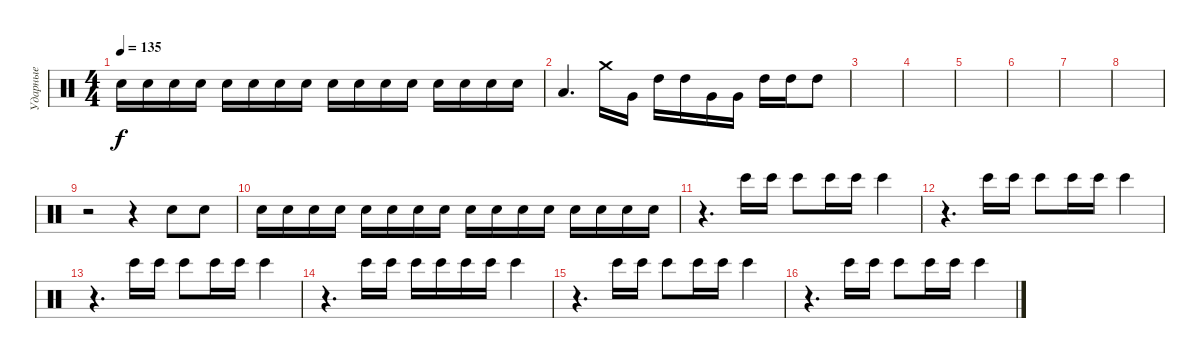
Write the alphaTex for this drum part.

\track ("Ударные" "Ударные") {instrument percussion}
\staff {score}
\articulation defaults
\ts (4 4)
\tempo 135
\clef neutral
\ks c "Electric Snare (hit)".16{dy f} "Electric Snare (hit)".16 "Electric Snare (hit)".16 "Electric Snare (hit)".16 "Electric Snare (hit)".16 "Electric Snare (hit)".16 "Electric Snare (hit)".16 "Electric Snare (hit)".16 "Electric Snare (hit)".16 "Electric Snare (hit)".16 "Electric Snare (hit)".16 "Electric Snare (hit)".16 "Electric Snare (hit)".16 "Electric Snare (hit)".16 "Electric Snare (hit)".16 "Electric Snare (hit)".16
|
"Low Floor Tom (hit)".4{d} "Crash medium (hit)".16 "Very Low Tom (hit)".16 "High Tom (hit)".16 "High Tom (hit)".16 "Very Low Tom (hit)".16 "Very Low Tom (hit)".16 "High Tom (hit)".16 "High Tom (hit)".16 "High Tom (hit)".8 |
|
|
|
|
|
|
r.2 r.4 "Electric Snare (hit)".8 "Electric Snare (hit)".8 |
"Electric Snare (hit)".16 "Electric Snare (hit)".16 "Electric Snare (hit)".16 "Electric Snare (hit)".16 "Electric Snare (hit)".16 "Electric Snare (hit)".16 "Electric Snare (hit)".16 "Electric Snare (hit)".16 "Electric Snare (hit)".16 "Electric Snare (hit)".16 "Electric Snare (hit)".16 "Electric Snare (hit)".16 "Electric Snare (hit)".16 "Electric Snare (hit)".16 "Electric Snare (hit)".16 "Electric Snare (hit)".16 |
r.4{d} "Bongo High (hit)".16 "Bongo High (hit)".16 "Bongo High (hit)".8 "Bongo High (hit)".16 "Bongo High (hit)".16 "Bongo High (hit)".4 |
r.4{d} "Bongo High (hit)".16 "Bongo High (hit)".16 "Bongo High (hit)".8 "Bongo High (hit)".16 "Bongo High (hit)".16 "Bongo High (hit)".4 |
r.4{d} "Bongo High (hit)".16 "Bongo High (hit)".16 "Bongo High (hit)".8 "Bongo High (hit)".16 "Bongo High (hit)".16 "Bongo High (hit)".4 |
r.4{d} "Bongo High (hit)".16 "Bongo High (hit)".16 "Bongo High (hit)".16 "Bongo High (hit)".16 "Bongo High (hit)".16 "Bongo High (hit)".16 "Bongo High (hit)".4 |
r.4{d} "Bongo High (hit)".16 "Bongo High (hit)".16 "Bongo High (hit)".8 "Bongo High (hit)".16 "Bongo High (hit)".16 "Bongo High (hit)".4 |
r.4{d} "Bongo High (hit)".16 "Bongo High (hit)".16 "Bongo High (hit)".8 "Bongo High (hit)".16 "Bongo High (hit)".16 "Bongo High (hit)".4
